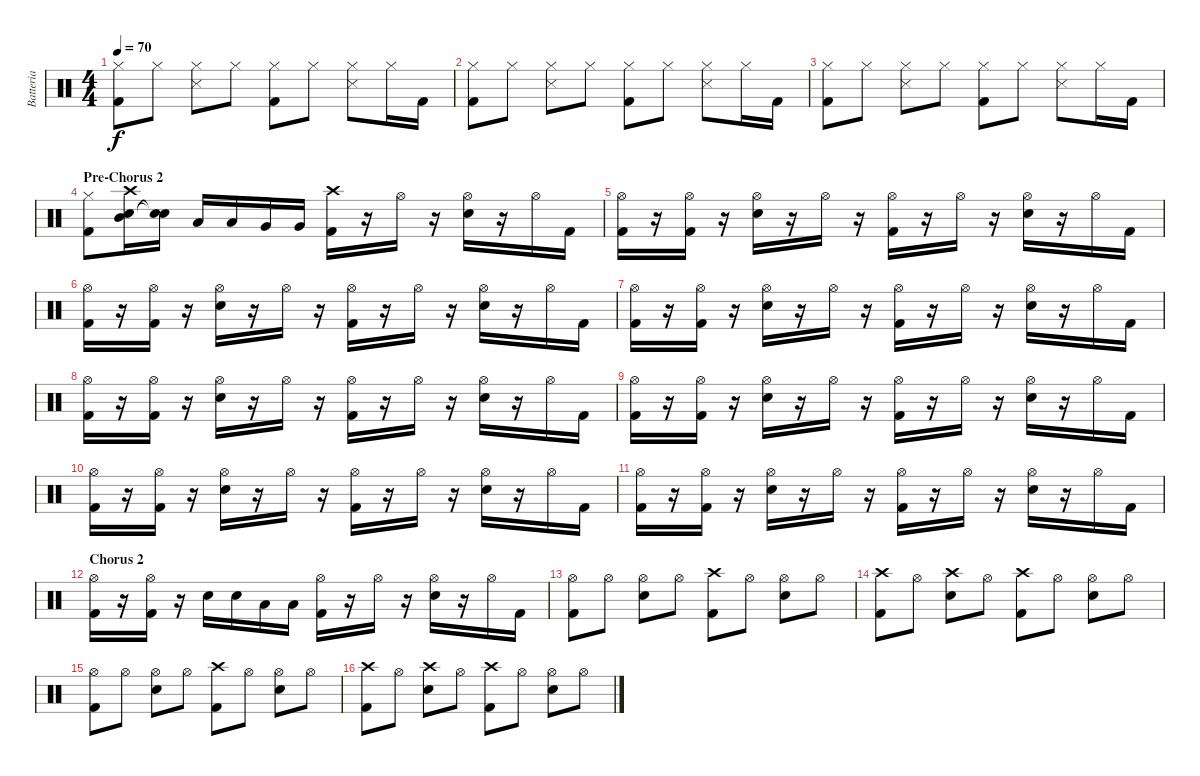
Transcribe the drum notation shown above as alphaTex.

\track ("Batteria" "Batteria") {instrument percussion}
\staff {score}
\articulation defaults
\ts (4 4)
\tempo 70
\clef neutral
\ks c
("Kick (hit) 2" "Hi-Hat (closed)").8{dy f} "Hi-Hat (closed)".8 ("Snare (side stick) 3" "Hi-Hat (closed)").8 "Hi-Hat (closed)".8 ("Kick (hit) 2" "Hi-Hat (closed)").8 "Hi-Hat (closed)".8 ("Snare (side stick) 3" "Hi-Hat (closed)").8 "Hi-Hat (closed)".16 "Kick (hit) 2".16 |
("Kick (hit) 2" "Hi-Hat (closed)").8 "Hi-Hat (closed)".8 ("Snare (side stick) 3" "Hi-Hat (closed)").8 "Hi-Hat (closed)".8 ("Kick (hit) 2" "Hi-Hat (closed)").8 "Hi-Hat (closed)".8 ("Snare (side stick) 3" "Hi-Hat (closed)").8 "Hi-Hat (closed)".16 "Kick (hit) 2".16 |
("Kick (hit) 2" "Hi-Hat (closed)").8 "Hi-Hat (closed)".8 ("Snare (side stick) 3" "Hi-Hat (closed)").8 "Hi-Hat (closed)".8 ("Kick (hit) 2" "Hi-Hat (closed)").8 "Hi-Hat (closed)".8 ("Snare (side stick) 3" "Hi-Hat (closed)").8 "Hi-Hat (closed)".16 "Kick (hit) 2".16 |
\section ("" "Pre-Chorus 2")
("Kick (hit) 2" "Hi-Hat (closed)").8 ("Mid Tom (hit)" "Electric Snare (hit)" "Crash high (hit)").16 ("Snare (hit)"{t} "Snare (hit)"{t}).16 "Low Tom (hit)".16 "Low Tom (hit)".16 "Very Low Tom (hit)".16 "Very Low Tom (hit)".16 ("Kick (hit) 2" "Crash high (hit)").16 r.16 "Hi-Hat (open)".16 r.16 ("Electric Snare (hit)" "Hi-Hat (open)").16 r.16 "Hi-Hat (open)".16 "Kick (hit) 2".16 |
("Kick (hit) 2" "Hi-Hat (open)").16 r.16 ("Kick (hit) 2" "Hi-Hat (open)").16 r.16 ("Electric Snare (hit)" "Hi-Hat (open)").16 r.16 "Hi-Hat (open)".16 r.16 ("Kick (hit) 2" "Hi-Hat (open)").16 r.16 "Hi-Hat (open)".16 r.16 ("Electric Snare (hit)" "Hi-Hat (open)").16 r.16 "Hi-Hat (open)".16 "Kick (hit) 2".16 |
("Kick (hit) 2" "Hi-Hat (open)").16 r.16 ("Kick (hit) 2" "Hi-Hat (open)").16 r.16 ("Electric Snare (hit)" "Hi-Hat (open)").16 r.16 "Hi-Hat (open)".16 r.16 ("Kick (hit) 2" "Hi-Hat (open)").16 r.16 "Hi-Hat (open)".16 r.16 ("Electric Snare (hit)" "Hi-Hat (open)").16 r.16 "Hi-Hat (open)".16 "Kick (hit) 2".16 |
("Kick (hit) 2" "Hi-Hat (open)").16 r.16 ("Kick (hit) 2" "Hi-Hat (open)").16 r.16 ("Electric Snare (hit)" "Hi-Hat (open)").16 r.16 "Hi-Hat (open)".16 r.16 ("Kick (hit) 2" "Hi-Hat (open)").16 r.16 "Hi-Hat (open)".16 r.16 ("Electric Snare (hit)" "Hi-Hat (open)").16 r.16 "Hi-Hat (open)".16 "Kick (hit) 2".16 |
("Kick (hit) 2" "Hi-Hat (open)").16 r.16 ("Kick (hit) 2" "Hi-Hat (open)").16 r.16 ("Electric Snare (hit)" "Hi-Hat (open)").16 r.16 "Hi-Hat (open)".16 r.16 ("Kick (hit) 2" "Hi-Hat (open)").16 r.16 "Hi-Hat (open)".16 r.16 ("Electric Snare (hit)" "Hi-Hat (open)").16 r.16 "Hi-Hat (open)".16 "Kick (hit) 2".16 |
("Kick (hit) 2" "Hi-Hat (open)").16 r.16 ("Kick (hit) 2" "Hi-Hat (open)").16 r.16 ("Electric Snare (hit)" "Hi-Hat (open)").16 r.16 "Hi-Hat (open)".16 r.16 ("Kick (hit) 2" "Hi-Hat (open)").16 r.16 "Hi-Hat (open)".16 r.16 ("Electric Snare (hit)" "Hi-Hat (open)").16 r.16 "Hi-Hat (open)".16 "Kick (hit) 2".16 |
("Kick (hit) 2" "Hi-Hat (open)").16 r.16 ("Kick (hit) 2" "Hi-Hat (open)").16 r.16 ("Electric Snare (hit)" "Hi-Hat (open)").16 r.16 "Hi-Hat (open)".16 r.16 ("Kick (hit) 2" "Hi-Hat (open)").16 r.16 "Hi-Hat (open)".16 r.16 ("Electric Snare (hit)" "Hi-Hat (open)").16 r.16 "Hi-Hat (open)".16 "Kick (hit) 2".16 |
("Kick (hit) 2" "Hi-Hat (open)").16 r.16 ("Kick (hit) 2" "Hi-Hat (open)").16 r.16 ("Electric Snare (hit)" "Hi-Hat (open)").16 r.16 "Hi-Hat (open)".16 r.16 ("Kick (hit) 2" "Hi-Hat (open)").16 r.16 "Hi-Hat (open)".16 r.16 ("Electric Snare (hit)" "Hi-Hat (open)").16 r.16 "Hi-Hat (open)".16 "Kick (hit) 2".16 |
\section ("" "Chorus 2")
("Kick (hit) 2" "Hi-Hat (open)").16 r.16 ("Kick (hit) 2" "Hi-Hat (open)").16 r.16 "Electric Snare (hit)".16 "Electric Snare (hit)".16 "Low Tom (hit)".16 "Low Tom (hit)".16 ("Kick (hit) 2" "Hi-Hat (open)").16 r.16 "Hi-Hat (open)".16 r.16 ("Electric Snare (hit)" "Hi-Hat (open)").16 r.16 "Hi-Hat (open)".16 "Kick (hit) 2".16 |
("Kick (hit) 2" "Hi-Hat (open)").8 "Hi-Hat (open)".8 ("Electric Snare (hit)" "Hi-Hat (open)").8 "Hi-Hat (open)".8 ("Kick (hit) 2" "Crash high (hit)").8 "Hi-Hat (open)".8 ("Electric Snare (hit)" "Hi-Hat (open)").8 "Hi-Hat (open)".8 |
("Kick (hit) 2" "Crash high (hit)").8 "Hi-Hat (open)".8 ("Electric Snare (hit)" "Crash high (hit)").8 "Hi-Hat (open)".8 ("Kick (hit) 2" "Crash high (hit)").8 "Hi-Hat (open)".8 ("Electric Snare (hit)" "Hi-Hat (open)").8 "Hi-Hat (open)".8 |
("Kick (hit) 2" "Hi-Hat (open)").8 "Hi-Hat (open)".8 ("Electric Snare (hit)" "Hi-Hat (open)").8 "Hi-Hat (open)".8 ("Kick (hit) 2" "Crash high (hit)").8 "Hi-Hat (open)".8 ("Electric Snare (hit)" "Hi-Hat (open)").8 "Hi-Hat (open)".8 |
("Kick (hit) 2" "Crash high (hit)").8 "Hi-Hat (open)".8 ("Electric Snare (hit)" "Crash high (hit)").8 "Hi-Hat (open)".8 ("Kick (hit) 2" "Crash high (hit)").8 "Hi-Hat (open)".8 ("Electric Snare (hit)" "Hi-Hat (open)").8 "Hi-Hat (open)".8
